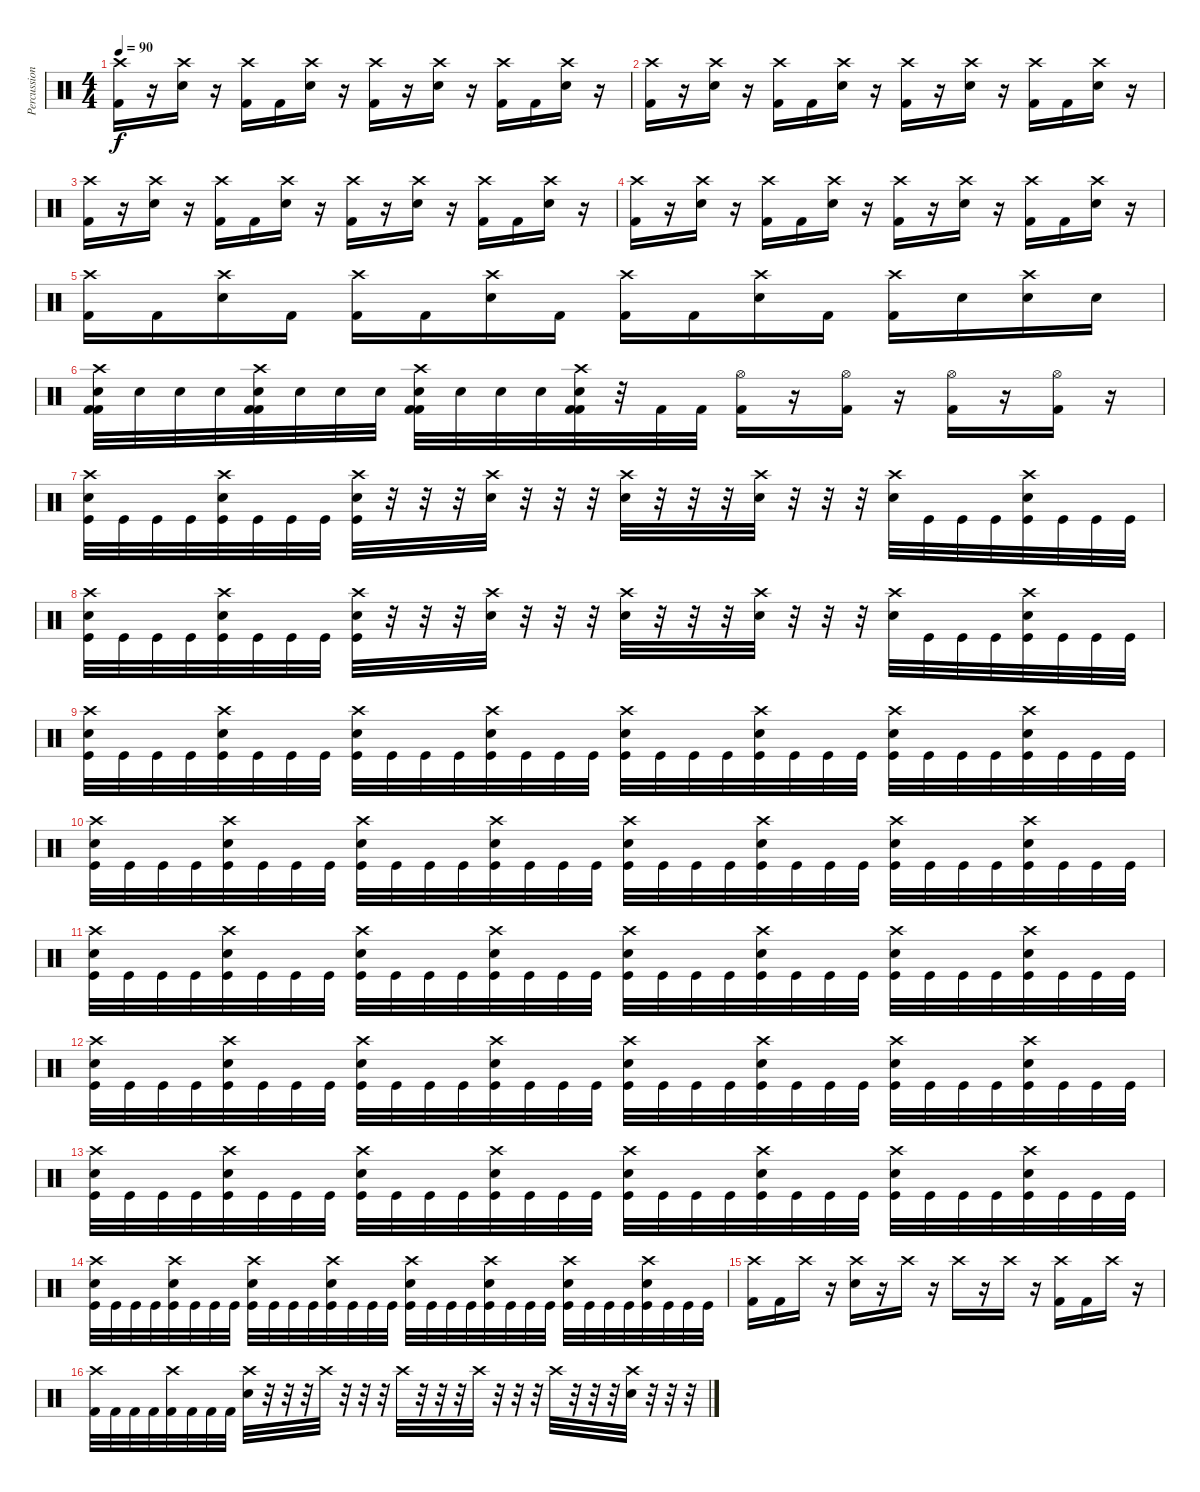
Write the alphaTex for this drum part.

\track ("Percussion" "Percussion") {instrument percussion}
\staff {score}
\articulation defaults
\ts (4 4)
\tempo 90
\clef neutral
\ks c
("Crash high (hit)" "Kick (hit) 2").16{dy f} r.16 ("Crash high (hit)" "Snare (hit) 2").16 r.16 ("Crash high (hit)" "Kick (hit) 2").16 "Kick (hit) 2".16 ("Crash high (hit)" "Snare (hit) 2").16 r.16 ("Crash high (hit)" "Kick (hit) 2").16 r.16 ("Crash high (hit)" "Snare (hit) 2").16 r.16 ("Crash high (hit)" "Kick (hit) 2").16 "Kick (hit) 2".16 ("Crash high (hit)" "Snare (hit) 2").16 r.16 |
("Crash high (hit)" "Kick (hit) 2").16 r.16 ("Crash high (hit)" "Snare (hit) 2").16 r.16 ("Crash high (hit)" "Kick (hit) 2").16 "Kick (hit) 2".16 ("Crash high (hit)" "Snare (hit) 2").16 r.16 ("Crash high (hit)" "Kick (hit) 2").16 r.16 ("Crash high (hit)" "Snare (hit) 2").16 r.16 ("Crash high (hit)" "Kick (hit) 2").16 "Kick (hit) 2".16 ("Crash high (hit)" "Snare (hit) 2").16 r.16 |
("Crash high (hit)" "Kick (hit) 2").16 r.16 ("Crash high (hit)" "Snare (hit) 2").16 r.16 ("Crash high (hit)" "Kick (hit) 2").16 "Kick (hit) 2".16 ("Crash high (hit)" "Snare (hit) 2").16 r.16 ("Crash high (hit)" "Kick (hit) 2").16 r.16 ("Crash high (hit)" "Snare (hit) 2").16 r.16 ("Crash high (hit)" "Kick (hit) 2").16 "Kick (hit) 2".16 ("Crash high (hit)" "Snare (hit) 2").16 r.16 |
("Crash high (hit)" "Kick (hit) 2").16 r.16 ("Crash high (hit)" "Snare (hit) 2").16 r.16 ("Crash high (hit)" "Kick (hit) 2").16 "Kick (hit) 2".16 ("Crash high (hit)" "Snare (hit) 2").16 r.16 ("Crash high (hit)" "Kick (hit) 2").16 r.16 ("Crash high (hit)" "Snare (hit) 2").16 r.16 ("Crash high (hit)" "Kick (hit) 2").16 "Kick (hit) 2".16 ("Crash high (hit)" "Snare (hit) 2").16 r.16 |
("Crash high (hit)" "Kick (hit) 2").16 "Kick (hit) 2".16 ("Crash high (hit)" "Snare (hit) 2").16 "Kick (hit) 2".16 ("Crash high (hit)" "Kick (hit) 2").16 "Kick (hit) 2".16 ("Crash high (hit)" "Snare (hit) 2").16 "Kick (hit) 2".16 ("Crash high (hit)" "Kick (hit) 2").16 "Kick (hit) 2".16 ("Crash high (hit)" "Snare (hit) 2").16 "Kick (hit) 2".16 ("Crash high (hit)" "Kick (hit) 2").16 "Snare (hit) 2".16 ("Crash high (hit)" "Snare (hit) 2").16 "Snare (hit) 2".16 |
("Crash high (hit)" "Kick (hit) 2" "Kick (hit) 2" "Snare (hit) 2").32 "Snare (hit) 2".32 "Snare (hit) 2".32 "Snare (hit) 2".32 ("Crash high (hit)" "Kick (hit) 2" "Kick (hit) 2" "Snare (hit) 2").32 "Snare (hit) 2".32 "Snare (hit) 2".32 "Snare (hit) 2".32 ("Crash high (hit)" "Kick (hit) 2" "Kick (hit) 2" "Snare (hit) 2").32 "Snare (hit) 2".32 "Snare (hit) 2".32 "Snare (hit) 2".32 ("Crash high (hit)" "Kick (hit) 2" "Kick (hit) 2" "Snare (hit) 2").32 r.32 "Kick (hit) 2".32 "Kick (hit) 2".32 ("Hi-Hat (open)" "Kick (hit) 2").16 r.16 ("Hi-Hat (open)" "Kick (hit) 2").16 r.16 ("Hi-Hat (open)" "Kick (hit) 2").16 r.16 ("Hi-Hat (open)" "Kick (hit) 2").16 r.16 |
("Crash high (hit)" "Kick (hit)" "Snare (hit) 2").32 "Kick (hit)".32 "Kick (hit)".32 "Kick (hit)".32 ("Crash high (hit)" "Kick (hit)" "Snare (hit) 2").32 "Kick (hit)".32 "Kick (hit)".32 "Kick (hit)".32 ("Crash high (hit)" "Kick (hit)" "Snare (hit) 2").32 r.32 r.32 r.32 ("Crash high (hit)" "Snare (hit) 2").32 r.32 r.32 r.32 ("Crash high (hit)" "Snare (hit) 2").32 r.32 r.32 r.32 ("Crash high (hit)" "Snare (hit) 2").32 r.32 r.32 r.32 ("Crash high (hit)" "Snare (hit) 2").32 "Kick (hit)".32 "Kick (hit)".32 "Kick (hit)".32 ("Crash high (hit)" "Kick (hit)" "Snare (hit) 2").32 "Kick (hit)".32 "Kick (hit)".32 "Kick (hit)".32 |
("Crash high (hit)" "Kick (hit)" "Snare (hit) 2").32 "Kick (hit)".32 "Kick (hit)".32 "Kick (hit)".32 ("Crash high (hit)" "Kick (hit)" "Snare (hit) 2").32 "Kick (hit)".32 "Kick (hit)".32 "Kick (hit)".32 ("Crash high (hit)" "Kick (hit)" "Snare (hit) 2").32 r.32 r.32 r.32 ("Crash high (hit)" "Snare (hit) 2").32 r.32 r.32 r.32 ("Crash high (hit)" "Snare (hit) 2").32 r.32 r.32 r.32 ("Crash high (hit)" "Snare (hit) 2").32 r.32 r.32 r.32 ("Crash high (hit)" "Snare (hit) 2").32 "Kick (hit)".32 "Kick (hit)".32 "Kick (hit)".32 ("Crash high (hit)" "Kick (hit)" "Snare (hit) 2").32 "Kick (hit)".32 "Kick (hit)".32 "Kick (hit)".32 |
("Crash high (hit)" "Kick (hit)" "Snare (hit) 2").32 "Kick (hit)".32 "Kick (hit)".32 "Kick (hit)".32 ("Crash high (hit)" "Kick (hit)" "Snare (hit) 2").32 "Kick (hit)".32 "Kick (hit)".32 "Kick (hit)".32 ("Crash high (hit)" "Kick (hit)" "Snare (hit) 2").32 "Kick (hit)".32 "Kick (hit)".32 "Kick (hit)".32 ("Crash high (hit)" "Kick (hit)" "Snare (hit) 2").32 "Kick (hit)".32 "Kick (hit)".32 "Kick (hit)".32 ("Crash high (hit)" "Kick (hit)" "Snare (hit) 2").32 "Kick (hit)".32 "Kick (hit)".32 "Kick (hit)".32 ("Crash high (hit)" "Kick (hit)" "Snare (hit) 2").32 "Kick (hit)".32 "Kick (hit)".32 "Kick (hit)".32 ("Crash high (hit)" "Kick (hit)" "Snare (hit) 2").32 "Kick (hit)".32 "Kick (hit)".32 "Kick (hit)".32 ("Crash high (hit)" "Kick (hit)" "Snare (hit) 2").32 "Kick (hit)".32 "Kick (hit)".32 "Kick (hit)".32 |
("Crash high (hit)" "Kick (hit)" "Snare (hit) 2").32 "Kick (hit)".32 "Kick (hit)".32 "Kick (hit)".32 ("Crash high (hit)" "Kick (hit)" "Snare (hit) 2").32 "Kick (hit)".32 "Kick (hit)".32 "Kick (hit)".32 ("Crash high (hit)" "Kick (hit)" "Snare (hit) 2").32 "Kick (hit)".32 "Kick (hit)".32 "Kick (hit)".32 ("Crash high (hit)" "Kick (hit)" "Snare (hit) 2").32 "Kick (hit)".32 "Kick (hit)".32 "Kick (hit)".32 ("Crash high (hit)" "Kick (hit)" "Snare (hit) 2").32 "Kick (hit)".32 "Kick (hit)".32 "Kick (hit)".32 ("Crash high (hit)" "Kick (hit)" "Snare (hit) 2").32 "Kick (hit)".32 "Kick (hit)".32 "Kick (hit)".32 ("Crash high (hit)" "Kick (hit)" "Snare (hit) 2").32 "Kick (hit)".32 "Kick (hit)".32 "Kick (hit)".32 ("Crash high (hit)" "Kick (hit)" "Snare (hit) 2").32 "Kick (hit)".32 "Kick (hit)".32 "Kick (hit)".32 |
("Crash high (hit)" "Kick (hit)" "Snare (hit) 2").32 "Kick (hit)".32 "Kick (hit)".32 "Kick (hit)".32 ("Crash high (hit)" "Kick (hit)" "Snare (hit) 2").32 "Kick (hit)".32 "Kick (hit)".32 "Kick (hit)".32 ("Crash high (hit)" "Kick (hit)" "Snare (hit) 2").32 "Kick (hit)".32 "Kick (hit)".32 "Kick (hit)".32 ("Crash high (hit)" "Kick (hit)" "Snare (hit) 2").32 "Kick (hit)".32 "Kick (hit)".32 "Kick (hit)".32 ("Crash high (hit)" "Kick (hit)" "Snare (hit) 2").32 "Kick (hit)".32 "Kick (hit)".32 "Kick (hit)".32 ("Crash high (hit)" "Kick (hit)" "Snare (hit) 2").32 "Kick (hit)".32 "Kick (hit)".32 "Kick (hit)".32 ("Crash high (hit)" "Kick (hit)" "Snare (hit) 2").32 "Kick (hit)".32 "Kick (hit)".32 "Kick (hit)".32 ("Crash high (hit)" "Kick (hit)" "Snare (hit) 2").32 "Kick (hit)".32 "Kick (hit)".32 "Kick (hit)".32 |
("Crash high (hit)" "Kick (hit)" "Snare (hit) 2").32 "Kick (hit)".32 "Kick (hit)".32 "Kick (hit)".32 ("Crash high (hit)" "Kick (hit)" "Snare (hit) 2").32 "Kick (hit)".32 "Kick (hit)".32 "Kick (hit)".32 ("Crash high (hit)" "Kick (hit)" "Snare (hit) 2").32 "Kick (hit)".32 "Kick (hit)".32 "Kick (hit)".32 ("Crash high (hit)" "Kick (hit)" "Snare (hit) 2").32 "Kick (hit)".32 "Kick (hit)".32 "Kick (hit)".32 ("Crash high (hit)" "Kick (hit)" "Snare (hit) 2").32 "Kick (hit)".32 "Kick (hit)".32 "Kick (hit)".32 ("Crash high (hit)" "Kick (hit)" "Snare (hit) 2").32 "Kick (hit)".32 "Kick (hit)".32 "Kick (hit)".32 ("Crash high (hit)" "Kick (hit)" "Snare (hit) 2").32 "Kick (hit)".32 "Kick (hit)".32 "Kick (hit)".32 ("Crash high (hit)" "Kick (hit)" "Snare (hit) 2").32 "Kick (hit)".32 "Kick (hit)".32 "Kick (hit)".32 |
("Crash high (hit)" "Kick (hit)" "Snare (hit) 2").32 "Kick (hit)".32 "Kick (hit)".32 "Kick (hit)".32 ("Crash high (hit)" "Kick (hit)" "Snare (hit) 2").32 "Kick (hit)".32 "Kick (hit)".32 "Kick (hit)".32 ("Crash high (hit)" "Kick (hit)" "Snare (hit) 2").32 "Kick (hit)".32 "Kick (hit)".32 "Kick (hit)".32 ("Crash high (hit)" "Kick (hit)" "Snare (hit) 2").32 "Kick (hit)".32 "Kick (hit)".32 "Kick (hit)".32 ("Crash high (hit)" "Kick (hit)" "Snare (hit) 2").32 "Kick (hit)".32 "Kick (hit)".32 "Kick (hit)".32 ("Crash high (hit)" "Kick (hit)" "Snare (hit) 2").32 "Kick (hit)".32 "Kick (hit)".32 "Kick (hit)".32 ("Crash high (hit)" "Kick (hit)" "Snare (hit) 2").32 "Kick (hit)".32 "Kick (hit)".32 "Kick (hit)".32 ("Crash high (hit)" "Kick (hit)" "Snare (hit) 2").32 "Kick (hit)".32 "Kick (hit)".32 "Kick (hit)".32 |
("Crash high (hit)" "Kick (hit)" "Snare (hit) 2").32 "Kick (hit)".32 "Kick (hit)".32 "Kick (hit)".32 ("Crash high (hit)" "Kick (hit)" "Snare (hit) 2").32 "Kick (hit)".32 "Kick (hit)".32 "Kick (hit)".32 ("Crash high (hit)" "Kick (hit)" "Snare (hit) 2").32 "Kick (hit)".32 "Kick (hit)".32 "Kick (hit)".32 ("Crash high (hit)" "Kick (hit)" "Snare (hit) 2").32 "Kick (hit)".32 "Kick (hit)".32 "Kick (hit)".32 ("Crash high (hit)" "Kick (hit)" "Snare (hit) 2").32 "Kick (hit)".32 "Kick (hit)".32 "Kick (hit)".32 ("Crash high (hit)" "Kick (hit)" "Snare (hit) 2").32 "Kick (hit)".32 "Kick (hit)".32 "Kick (hit)".32 ("Crash high (hit)" "Kick (hit)" "Snare (hit) 2").32 "Kick (hit)".32 "Kick (hit)".32 "Kick (hit)".32 ("Crash high (hit)" "Kick (hit)" "Snare (hit) 2").32 "Kick (hit)".32 "Kick (hit)".32 "Kick (hit)".32 |
("Crash high (hit)" "Kick (hit) 2").16 "Kick (hit) 2".16 "Crash high (hit)".16 r.16 ("Crash high (hit)" "Snare (hit) 2").16 r.16 "Crash high (hit)".16 r.16 "Crash high (hit)".16 r.16 "Crash high (hit)".16 r.16 ("Crash high (hit)" "Kick (hit) 2").16 "Kick (hit) 2".16 "Crash high (hit)".16 r.16 |
("Crash high (hit)" "Kick (hit) 2").32 "Kick (hit) 2".32 "Kick (hit) 2".32 "Kick (hit) 2".32 ("Crash high (hit)" "Kick (hit) 2").32 "Kick (hit) 2".32 "Kick (hit) 2".32 "Kick (hit) 2".32 ("Crash high (hit)" "Snare (hit) 2").32 r.32 r.32 r.32 "Crash high (hit)".32 r.32 r.32 r.32 "Crash high (hit)".32 r.32 r.32 r.32 "Crash high (hit)".32 r.32 r.32 r.32 "Crash high (hit)".32 r.32 r.32 r.32 ("Crash high (hit)" "Snare (hit) 2").32 r.32 r.32 r.32
